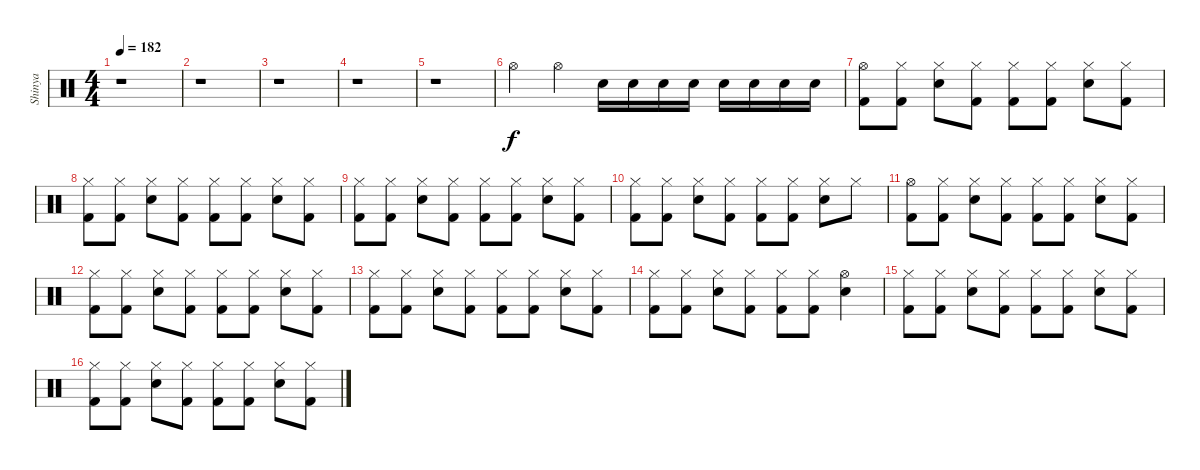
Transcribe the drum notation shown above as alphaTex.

\track ("Shinya" "Shinya") {instrument percussion}
\staff {score}
\articulation defaults
\ts (4 4)
\tempo 182
\clef neutral
\ks c
r.1{dy f} |
r.1 |
r.1 |
r.1 |
r.1 |
"Hi-Hat (open)".4 "Hi-Hat (open)".4 "Snare (hit) 2".16 "Snare (hit) 2".16 "Snare (hit) 2".16 "Snare (hit) 2".16 "Snare (hit) 2".16 "Snare (hit) 2".16 "Snare (hit) 2".16 "Snare (hit) 2".16 |
("Kick (hit) 2" "Hi-Hat (open)").8 ("Kick (hit) 2" "Hi-Hat (closed)").8 ("Snare (hit) 2" "Hi-Hat (closed)").8 ("Kick (hit) 2" "Hi-Hat (closed)").8 ("Kick (hit) 2" "Hi-Hat (closed)").8 ("Kick (hit) 2" "Hi-Hat (closed)").8 ("Snare (hit) 2" "Hi-Hat (closed)").8 ("Kick (hit) 2" "Hi-Hat (closed)").8 |
("Kick (hit) 2" "Hi-Hat (closed)").8 ("Kick (hit) 2" "Hi-Hat (closed)").8 ("Snare (hit) 2" "Hi-Hat (closed)").8 ("Kick (hit) 2" "Hi-Hat (closed)").8 ("Kick (hit) 2" "Hi-Hat (closed)").8 ("Kick (hit) 2" "Hi-Hat (closed)").8 ("Snare (hit) 2" "Hi-Hat (closed)").8 ("Kick (hit) 2" "Hi-Hat (closed)").8 |
("Kick (hit) 2" "Hi-Hat (closed)").8 ("Kick (hit) 2" "Hi-Hat (closed)").8 ("Snare (hit) 2" "Hi-Hat (closed)").8 ("Kick (hit) 2" "Hi-Hat (closed)").8 ("Kick (hit) 2" "Hi-Hat (closed)").8 ("Kick (hit) 2" "Hi-Hat (closed)").8 ("Snare (hit) 2" "Hi-Hat (closed)").8 ("Kick (hit) 2" "Hi-Hat (closed)").8 |
("Kick (hit) 2" "Hi-Hat (closed)").8 ("Kick (hit) 2" "Hi-Hat (closed)").8 ("Snare (hit) 2" "Hi-Hat (closed)").8 ("Kick (hit) 2" "Hi-Hat (closed)").8 ("Kick (hit) 2" "Hi-Hat (closed)").8 ("Kick (hit) 2" "Hi-Hat (closed)").8 ("Snare (hit) 2" "Hi-Hat (closed)").8 "Hi-Hat (closed)".8 |
("Kick (hit) 2" "Hi-Hat (open)").8 ("Kick (hit) 2" "Hi-Hat (closed)").8 ("Snare (hit) 2" "Hi-Hat (closed)").8 ("Kick (hit) 2" "Hi-Hat (closed)").8 ("Kick (hit) 2" "Hi-Hat (closed)").8 ("Kick (hit) 2" "Hi-Hat (closed)").8 ("Snare (hit) 2" "Hi-Hat (closed)").8 ("Kick (hit) 2" "Hi-Hat (closed)").8 |
("Kick (hit) 2" "Hi-Hat (closed)").8 ("Kick (hit) 2" "Hi-Hat (closed)").8 ("Snare (hit) 2" "Hi-Hat (closed)").8 ("Kick (hit) 2" "Hi-Hat (closed)").8 ("Kick (hit) 2" "Hi-Hat (closed)").8 ("Kick (hit) 2" "Hi-Hat (closed)").8 ("Snare (hit) 2" "Hi-Hat (closed)").8 ("Kick (hit) 2" "Hi-Hat (closed)").8 |
("Kick (hit) 2" "Hi-Hat (closed)").8 ("Kick (hit) 2" "Hi-Hat (closed)").8 ("Snare (hit) 2" "Hi-Hat (closed)").8 ("Kick (hit) 2" "Hi-Hat (closed)").8 ("Kick (hit) 2" "Hi-Hat (closed)").8 ("Kick (hit) 2" "Hi-Hat (closed)").8 ("Snare (hit) 2" "Hi-Hat (closed)").8 ("Kick (hit) 2" "Hi-Hat (closed)").8 |
("Kick (hit) 2" "Hi-Hat (closed)").8 ("Kick (hit) 2" "Hi-Hat (closed)").8 ("Snare (hit) 2" "Hi-Hat (closed)").8 ("Kick (hit) 2" "Hi-Hat (closed)").8 ("Kick (hit) 2" "Hi-Hat (closed)").8 ("Kick (hit) 2" "Hi-Hat (closed)").8 ("Snare (hit) 2" "Hi-Hat (open)").4 |
("Kick (hit) 2" "Hi-Hat (closed)").8 ("Kick (hit) 2" "Hi-Hat (closed)").8 ("Snare (hit) 2" "Hi-Hat (closed)").8 ("Kick (hit) 2" "Hi-Hat (closed)").8 ("Kick (hit) 2" "Hi-Hat (closed)").8 ("Kick (hit) 2" "Hi-Hat (closed)").8 ("Snare (hit) 2" "Hi-Hat (closed)").8 ("Kick (hit) 2" "Hi-Hat (closed)").8 |
("Kick (hit) 2" "Hi-Hat (closed)").8 ("Kick (hit) 2" "Hi-Hat (closed)").8 ("Snare (hit) 2" "Hi-Hat (closed)").8 ("Kick (hit) 2" "Hi-Hat (closed)").8 ("Kick (hit) 2" "Hi-Hat (closed)").8 ("Kick (hit) 2" "Hi-Hat (closed)").8 ("Snare (hit) 2" "Hi-Hat (closed)").8 ("Kick (hit) 2" "Hi-Hat (closed)").8
